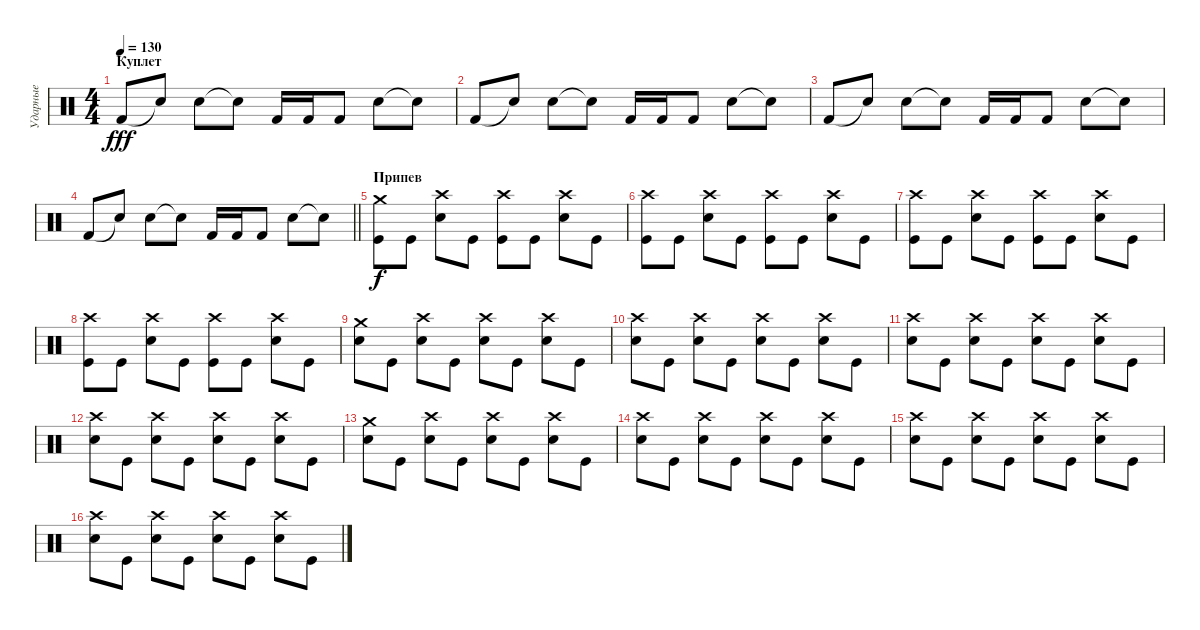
\track ("Ударные" "Ударные") {instrument percussion}
\staff {score}
\articulation defaults
\ts (4 4)
\section ("" "Куплет")
\tempo 130
\clef neutral
\ks c "Kick (hit) 2".8{dy fff volume 16 balance 11} "Snare (hit)"{t}.8 "Snare (hit) 2".8 "Snare (hit)"{t}.8 "Kick (hit) 2".16 "Kick (hit) 2".16 "Kick (hit) 2".8 "Snare (hit) 2".8 "Snare (hit)"{t}.8
|
"Kick (hit) 2".8 "Snare (hit)"{t}.8 "Snare (hit) 2".8 "Snare (hit)"{t}.8 "Kick (hit) 2".16 "Kick (hit) 2".16 "Kick (hit) 2".8 "Snare (hit) 2".8 "Snare (hit)"{t}.8 |
"Kick (hit) 2".8 "Snare (hit)"{t}.8 "Snare (hit) 2".8 "Snare (hit)"{t}.8 "Kick (hit) 2".16 "Kick (hit) 2".16 "Kick (hit) 2".8 "Snare (hit) 2".8 "Snare (hit)"{t}.8 |
\barLineRight lightlight "Kick (hit) 2".8 "Snare (hit)"{t}.8 "Snare (hit) 2".8 "Snare (hit)"{t}.8 "Kick (hit) 2".16 "Kick (hit) 2".16 "Kick (hit) 2".8 "Snare (hit) 2".8 "Snare (hit)"{t}.8
|
\section ("" "Припев")
("Kick (hit)" "Crash medium (hit)").8{dy f balance 8} "Kick (hit)".8 ("Electric Snare (hit)" "Crash high (hit)").8 "Kick (hit)".8 ("Kick (hit)" "Crash high (hit)").8 "Kick (hit)".8 ("Electric Snare (hit)" "Crash high (hit)").8 "Kick (hit)".8 |
("Kick (hit)" "Crash high (hit)").8 "Kick (hit)".8 ("Electric Snare (hit)" "Crash high (hit)").8 "Kick (hit)".8 ("Kick (hit)" "Crash high (hit)").8 "Kick (hit)".8 ("Electric Snare (hit)" "Crash high (hit)").8 "Kick (hit)".8 |
("Kick (hit)" "Crash high (hit)").8 "Kick (hit)".8 ("Electric Snare (hit)" "Crash high (hit)").8 "Kick (hit)".8 ("Kick (hit)" "Crash high (hit)").8 "Kick (hit)".8 ("Electric Snare (hit)" "Crash high (hit)").8 "Kick (hit)".8 |
("Kick (hit)" "Crash high (hit)").8 "Kick (hit)".8 ("Electric Snare (hit)" "Crash high (hit)").8 "Kick (hit)".8 ("Kick (hit)" "Crash high (hit)").8 "Kick (hit)".8 ("Electric Snare (hit)" "Crash high (hit)").8 "Kick (hit)".8 |
("Electric Snare (hit)" "Crash medium (hit)").8 "Kick (hit)".8 ("Electric Snare (hit)" "Crash high (hit)").8 "Kick (hit)".8 ("Electric Snare (hit)" "Crash high (hit)").8 "Kick (hit)".8 ("Electric Snare (hit)" "Crash high (hit)").8 "Kick (hit)".8 |
("Electric Snare (hit)" "Crash high (hit)").8 "Kick (hit)".8 ("Electric Snare (hit)" "Crash high (hit)").8 "Kick (hit)".8 ("Electric Snare (hit)" "Crash high (hit)").8 "Kick (hit)".8 ("Electric Snare (hit)" "Crash high (hit)").8 "Kick (hit)".8 |
("Electric Snare (hit)" "Crash high (hit)").8 "Kick (hit)".8 ("Electric Snare (hit)" "Crash high (hit)").8 "Kick (hit)".8 ("Electric Snare (hit)" "Crash high (hit)").8 "Kick (hit)".8 ("Electric Snare (hit)" "Crash high (hit)").8 "Kick (hit)".8 |
("Electric Snare (hit)" "Crash high (hit)").8 "Kick (hit)".8 ("Electric Snare (hit)" "Crash high (hit)").8 "Kick (hit)".8 ("Electric Snare (hit)" "Crash high (hit)").8 "Kick (hit)".8 ("Electric Snare (hit)" "Crash high (hit)").8 "Kick (hit)".8 |
("Electric Snare (hit)" "Crash medium (hit)").8 "Kick (hit)".8 ("Electric Snare (hit)" "Crash high (hit)").8 "Kick (hit)".8 ("Electric Snare (hit)" "Crash high (hit)").8 "Kick (hit)".8 ("Electric Snare (hit)" "Crash high (hit)").8 "Kick (hit)".8 |
("Electric Snare (hit)" "Crash high (hit)").8 "Kick (hit)".8 ("Electric Snare (hit)" "Crash high (hit)").8 "Kick (hit)".8 ("Electric Snare (hit)" "Crash high (hit)").8 "Kick (hit)".8 ("Electric Snare (hit)" "Crash high (hit)").8 "Kick (hit)".8 |
("Electric Snare (hit)" "Crash high (hit)").8 "Kick (hit)".8 ("Electric Snare (hit)" "Crash high (hit)").8 "Kick (hit)".8 ("Electric Snare (hit)" "Crash high (hit)").8 "Kick (hit)".8 ("Electric Snare (hit)" "Crash high (hit)").8 "Kick (hit)".8 |
("Electric Snare (hit)" "Crash high (hit)").8 "Kick (hit)".8 ("Electric Snare (hit)" "Crash high (hit)").8 "Kick (hit)".8 ("Electric Snare (hit)" "Crash high (hit)").8 "Kick (hit)".8 ("Electric Snare (hit)" "Crash high (hit)").8 "Kick (hit)".8
